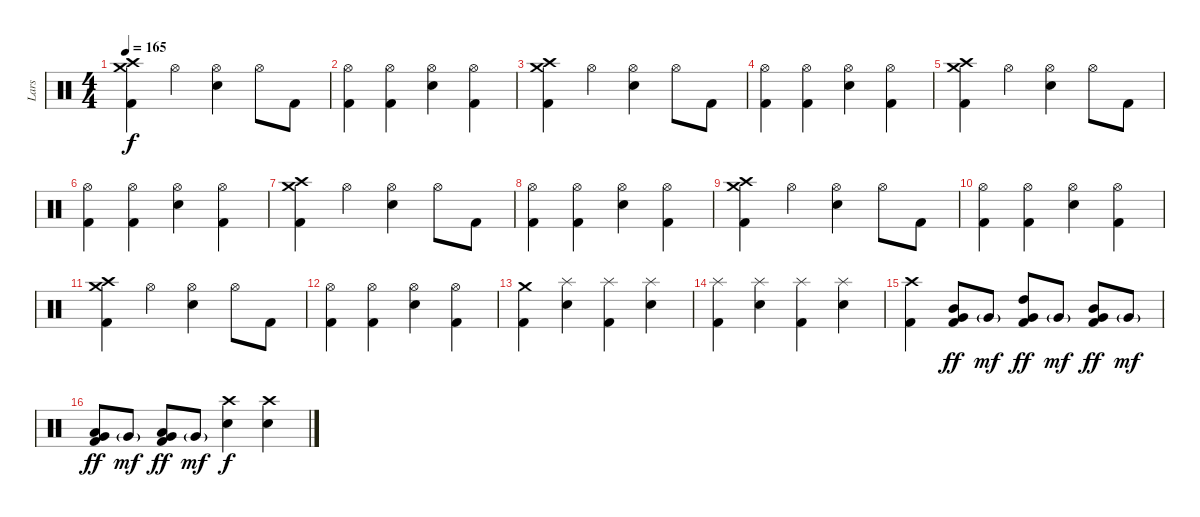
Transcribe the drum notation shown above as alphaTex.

\track ("Lars" "Lars") {instrument percussion}
\staff {score}
\articulation defaults
\ts (4 4)
\tempo 165
\clef neutral
\ks c
("Crash high (hit)" "Crash medium (hit)" "Kick (hit) 2").4{dy f} "Hi-Hat (open)".4 ("Hi-Hat (open)" "Snare (hit) 2").4 "Hi-Hat (open)".8 "Kick (hit) 2".8 |
("Hi-Hat (open)" "Kick (hit) 2").4 ("Hi-Hat (open)" "Kick (hit) 2").4 ("Hi-Hat (open)" "Snare (hit) 2").4 ("Hi-Hat (open)" "Kick (hit) 2").4 |
("Crash high (hit)" "Crash medium (hit)" "Kick (hit) 2").4 "Hi-Hat (open)".4 ("Hi-Hat (open)" "Snare (hit) 2").4 "Hi-Hat (open)".8 "Kick (hit) 2".8 |
("Hi-Hat (open)" "Kick (hit) 2").4 ("Hi-Hat (open)" "Kick (hit) 2").4 ("Hi-Hat (open)" "Snare (hit) 2").4 ("Hi-Hat (open)" "Kick (hit) 2").4 |
("Crash high (hit)" "Crash medium (hit)" "Kick (hit) 2").4 "Hi-Hat (open)".4 ("Hi-Hat (open)" "Snare (hit) 2").4 "Hi-Hat (open)".8 "Kick (hit) 2".8 |
("Hi-Hat (open)" "Kick (hit) 2").4 ("Hi-Hat (open)" "Kick (hit) 2").4 ("Hi-Hat (open)" "Snare (hit) 2").4 ("Hi-Hat (open)" "Kick (hit) 2").4 |
("Crash high (hit)" "Crash medium (hit)" "Kick (hit) 2").4 "Hi-Hat (open)".4 ("Hi-Hat (open)" "Snare (hit) 2").4 "Hi-Hat (open)".8 "Kick (hit) 2".8 |
("Hi-Hat (open)" "Kick (hit) 2").4 ("Hi-Hat (open)" "Kick (hit) 2").4 ("Hi-Hat (open)" "Snare (hit) 2").4 ("Hi-Hat (open)" "Kick (hit) 2").4 |
("Crash high (hit)" "Crash medium (hit)" "Kick (hit) 2").4 "Hi-Hat (open)".4 ("Hi-Hat (open)" "Snare (hit) 2").4 "Hi-Hat (open)".8 "Kick (hit) 2".8 |
("Hi-Hat (open)" "Kick (hit) 2").4 ("Hi-Hat (open)" "Kick (hit) 2").4 ("Hi-Hat (open)" "Snare (hit) 2").4 ("Hi-Hat (open)" "Kick (hit) 2").4 |
("Crash high (hit)" "Crash medium (hit)" "Kick (hit) 2").4 "Hi-Hat (open)".4 ("Hi-Hat (open)" "Snare (hit) 2").4 "Hi-Hat (open)".8 "Kick (hit) 2".8 |
("Hi-Hat (open)" "Kick (hit) 2").4 ("Hi-Hat (open)" "Kick (hit) 2").4 ("Hi-Hat (open)" "Snare (hit) 2").4 ("Hi-Hat (open)" "Kick (hit) 2").4 |
("Crash medium (hit)" "Kick (hit) 2").4 ("Splash (hit)" "Snare (hit) 2").4 ("Splash (hit)" "Kick (hit) 2").4 ("Splash (hit)" "Snare (hit) 2").4 |
("Splash (hit)" "Kick (hit) 2").4 ("Splash (hit)" "Snare (hit) 2").4 ("Splash (hit)" "Kick (hit) 2").4 ("Splash (hit)" "Snare (hit) 2").4 |
("Crash high (hit)" "Kick (hit) 2").4 ("Mid Tom (hit)" "Very Low Tom (hit)" "Kick (hit) 2").8{dy ff} "Very Low Tom (hit)"{g}.8{dy mf} ("High Tom (hit)" "Very Low Tom (hit)" "Kick (hit) 2").8{dy ff} "Very Low Tom (hit)"{g}.8{dy mf} ("Mid Tom (hit)" "Very Low Tom (hit)" "Kick (hit) 2").8{dy ff} "Very Low Tom (hit)"{g}.8{dy mf} |
("Low Tom (hit)" "Very Low Tom (hit)" "Kick (hit) 2").8{dy ff} "Very Low Tom (hit)"{g}.8{dy mf} ("Low Tom (hit)" "Very Low Tom (hit)" "Kick (hit) 2").8{dy ff} "Very Low Tom (hit)"{g}.8{dy mf} ("Crash high (hit)" "Snare (hit) 2").4{dy f} ("Crash high (hit)" "Snare (hit) 2").4
